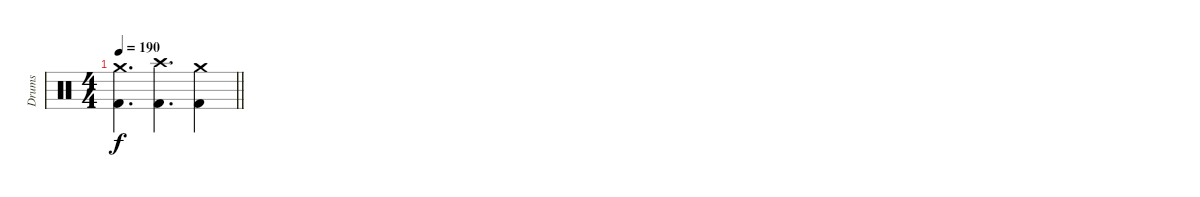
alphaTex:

\track ("Drums" "Drums") {instrument percussion}
\staff {score}
\articulation defaults
\ts (4 4)
\tempo 190
\clef neutral
\barLineRight lightlight
\ks c
("Kick (hit) 2" "Crash medium (hit)").4{d dy f} ("Kick (hit) 2" "Crash high (hit)").4{d} ("Kick (hit) 2" "Crash medium (hit)").4
